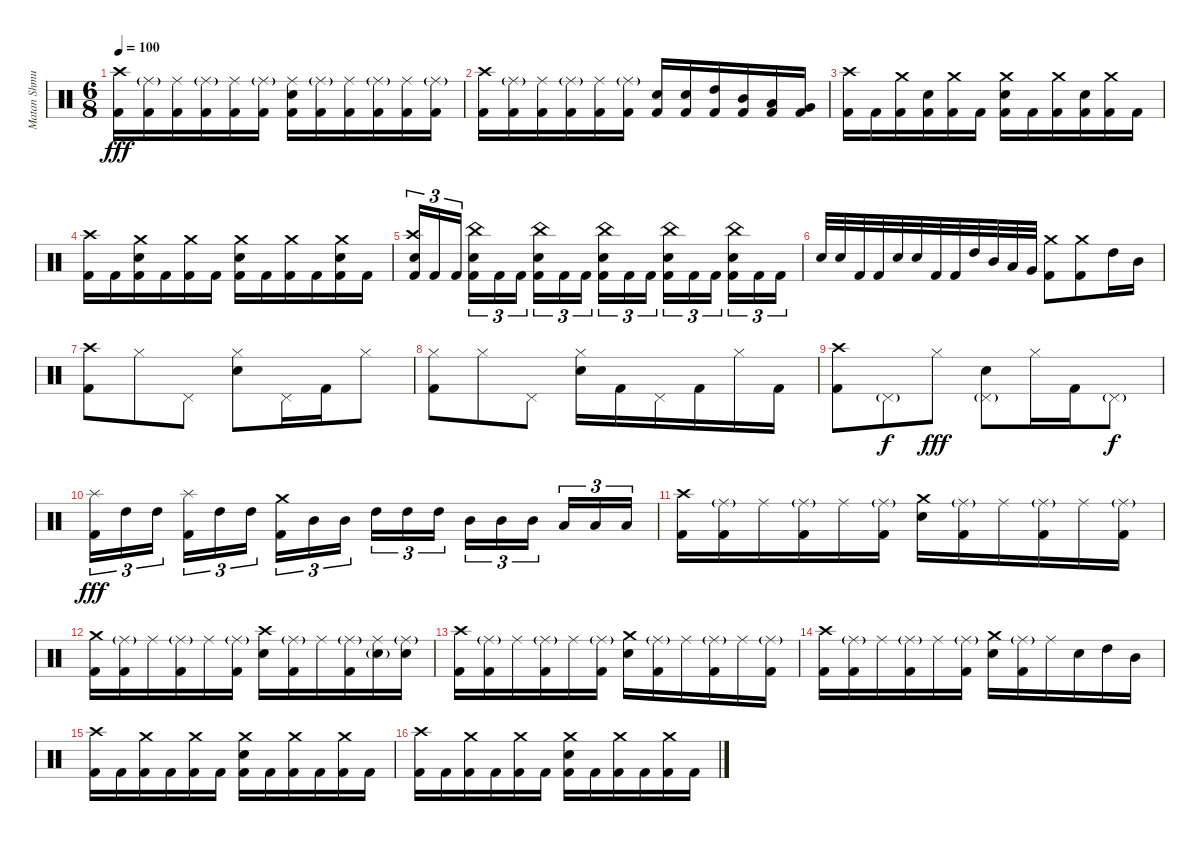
\track ("Matan Shmuely" "Matan Shmu") {instrument percussion}
\staff {score}
\articulation defaults
\ts (6 8)
\tempo 100
\clef neutral
\ks c
("Kick (hit) 2" "Crash high (hit)").16{dy fff} ("Kick (hit) 2" "Ride (middle)"{g}).16 ("Kick (hit) 2" "Ride (middle)").16 ("Kick (hit) 2" "Ride (middle)"{g}).16 ("Kick (hit) 2" "Ride (middle)").16 ("Kick (hit) 2" "Ride (middle)"{g}).16 ("Kick (hit) 2" "Electric Snare (hit)" "Ride (middle)").16 ("Kick (hit) 2" "Ride (middle)"{g}).16 ("Kick (hit) 2" "Ride (middle)").16 ("Kick (hit) 2" "Ride (middle)"{g}).16 ("Kick (hit) 2" "Ride (middle)").16 ("Kick (hit) 2" "Ride (middle)"{g}).16 |
("Kick (hit) 2" "Crash high (hit)").16 ("Kick (hit) 2" "Ride (middle)"{g}).16 ("Kick (hit) 2" "Ride (middle)").16 ("Kick (hit) 2" "Ride (middle)"{g}).16 ("Kick (hit) 2" "Ride (middle)").16 ("Kick (hit) 2" "Ride (middle)"{g}).16 ("Kick (hit) 2" "Electric Snare (hit)").16 ("Kick (hit) 2" "Electric Snare (hit)").16 ("Kick (hit) 2" "High Tom (hit)").16 ("Kick (hit) 2" "Mid Tom (hit)").16 ("Kick (hit) 2" "Low Tom (hit)").16 ("Kick (hit) 2" "Very Low Tom (hit)").16 |
("Kick (hit) 2" "Crash high (hit)").16 "Kick (hit) 2".16 ("Kick (hit) 2" "Crash medium (hit)").16 ("Kick (hit) 2" "Electric Snare (hit)").16 ("Kick (hit) 2" "Crash medium (hit)").16 "Kick (hit) 2".16 ("Kick (hit) 2" "Electric Snare (hit)" "Crash medium (hit)").16 "Kick (hit) 2".16 ("Kick (hit) 2" "Crash medium (hit)").16 ("Kick (hit) 2" "Electric Snare (hit)").16 ("Kick (hit) 2" "Crash medium (hit)").16 "Kick (hit) 2".16 |
("Kick (hit) 2" "Crash high (hit)").16 "Kick (hit) 2".16 ("Kick (hit) 2" "Electric Snare (hit)" "Crash medium (hit)").16 "Kick (hit) 2".16 ("Kick (hit) 2" "Crash medium (hit)").16 "Kick (hit) 2".16 ("Kick (hit) 2" "Electric Snare (hit)" "Crash medium (hit)").16 "Kick (hit) 2".16 ("Kick (hit) 2" "Crash medium (hit)").16 "Kick (hit) 2".16 ("Kick (hit) 2" "Electric Snare (hit)" "Crash medium (hit)").16 "Kick (hit) 2".16 |
("Kick (hit) 2" "Electric Snare (hit)" "Crash high (hit)").16{tu (3 2)} "Kick (hit) 2".16{tu (3 2)} "Kick (hit) 2".16{tu (3 2) beam splitsecondary} ("Kick (hit) 2" "Electric Snare (hit)" "China (hit)").16{tu (3 2)} "Kick (hit) 2".16{tu (3 2)} "Kick (hit) 2".16{tu (3 2) beam splitsecondary} ("Kick (hit) 2" "Electric Snare (hit)" "China (hit)").16{tu (3 2)} "Kick (hit) 2".16{tu (3 2)} "Kick (hit) 2".16{tu (3 2)} ("Kick (hit) 2" "Electric Snare (hit)" "China (hit)").16{tu (3 2)} "Kick (hit) 2".16{tu (3 2)} "Kick (hit) 2".16{tu (3 2) beam splitsecondary} ("Kick (hit) 2" "Electric Snare (hit)" "China (hit)").16{tu (3 2)} "Kick (hit) 2".16{tu (3 2)} "Kick (hit) 2".16{tu (3 2) beam splitsecondary} ("Kick (hit) 2" "Electric Snare (hit)" "China (hit)").16{tu (3 2)} "Kick (hit) 2".16{tu (3 2)} "Kick (hit) 2".16{tu (3 2)} |
"Electric Snare (hit)".32 "Electric Snare (hit)".32 "Kick (hit) 2".32 "Kick (hit) 2".32 "Electric Snare (hit)".32 "Electric Snare (hit)".32 "Kick (hit) 2".32 "Kick (hit) 2".32 "High Tom (hit)".32 "Mid Tom (hit)".32 "Low Tom (hit)".32 "Very Low Tom (hit)".32 ("Kick (hit) 2" "Crash medium (hit)").8 ("Kick (hit) 2" "Crash medium (hit)").8 "High Tom (hit)".16 "Mid Tom (hit)".16 |
("Kick (hit) 2" "Crash high (hit)").8 "Hi-Hat (closed)".8 "Pedal Hi-Hat (hit)".8 ("Electric Snare (hit)" "Hi-Hat (closed)").8 "Pedal Hi-Hat (hit)".16 "Kick (hit) 2".16 "Hi-Hat (closed)".8 |
("Kick (hit) 2" "Hi-Hat (closed)").8 "Hi-Hat (closed)".8 "Pedal Hi-Hat (hit)".8 ("Electric Snare (hit)" "Hi-Hat (closed)").16 "Kick (hit) 2".16 "Pedal Hi-Hat (hit)".16 "Kick (hit) 2".16 "Hi-Hat (closed)".16 "Kick (hit) 2".16 |
("Kick (hit) 2" "Crash high (hit)").8 "Pedal Hi-Hat (hit)"{g}.8{dy f} "Hi-Hat (closed)".8{dy fff} ("Electric Snare (hit)" "Pedal Hi-Hat (hit)"{g}).8 "Hi-Hat (closed)".16 "Kick (hit) 2".16 "Pedal Hi-Hat (hit)"{g}.8{dy f} |
("Kick (hit) 2" "Splash (hit)").16{tu (3 2) dy fff} "High Tom (hit)".16{tu (3 2)} "High Tom (hit)".16{tu (3 2) beam splitsecondary} ("Kick (hit) 2" "Splash (hit)").16{tu (3 2)} "High Tom (hit)".16{tu (3 2)} "High Tom (hit)".16{tu (3 2) beam splitsecondary} ("Kick (hit) 2" "Crash medium (hit)").16{tu (3 2)} "Mid Tom (hit)".16{tu (3 2)} "Mid Tom (hit)".16{tu (3 2)} "High Tom (hit)".16{tu (3 2)} "High Tom (hit)".16{tu (3 2)} "High Tom (hit)".16{tu (3 2) beam splitsecondary} "Mid Tom (hit)".16{tu (3 2)} "Mid Tom (hit)".16{tu (3 2)} "Mid Tom (hit)".16{tu (3 2) beam splitsecondary} "Low Tom (hit)".16{tu (3 2)} "Low Tom (hit)".16{tu (3 2)} "Low Tom (hit)".16{tu (3 2)} |
("Kick (hit) 2" "Crash high (hit)").16 ("Kick (hit) 2" "Ride (middle)"{g}).16 "Ride (middle)".16 ("Kick (hit) 2" "Ride (middle)"{g}).16 "Ride (middle)".16 ("Kick (hit) 2" "Ride (middle)"{g}).16 ("Electric Snare (hit)" "Crash medium (hit)").16 ("Kick (hit) 2" "Ride (middle)"{g}).16 "Ride (middle)".16 ("Kick (hit) 2" "Ride (middle)"{g}).16 "Ride (middle)".16 ("Kick (hit) 2" "Ride (middle)"{g}).16 |
("Kick (hit) 2" "Crash medium (hit)").16 ("Kick (hit) 2" "Ride (middle)"{g}).16 "Ride (middle)".16 ("Kick (hit) 2" "Ride (middle)"{g}).16 "Ride (middle)".16 ("Kick (hit) 2" "Ride (middle)"{g}).16 ("Electric Snare (hit)" "Crash high (hit)").16 ("Kick (hit) 2" "Ride (middle)"{g}).16 "Ride (middle)".16 ("Kick (hit) 2" "Ride (middle)"{g}).16 ("Electric Snare (hit)"{g} "Ride (middle)").16 ("Electric Snare (hit)" "Ride (middle)"{g}).16 |
("Kick (hit) 2" "Crash high (hit)").16 ("Kick (hit) 2" "Ride (middle)"{g}).16 "Ride (middle)".16 ("Kick (hit) 2" "Ride (middle)"{g}).16 "Ride (middle)".16 ("Kick (hit) 2" "Ride (middle)"{g}).16 ("Electric Snare (hit)" "Crash medium (hit)").16 ("Kick (hit) 2" "Ride (middle)"{g}).16 "Ride (middle)".16 ("Kick (hit) 2" "Ride (middle)"{g}).16 "Ride (middle)".16 ("Kick (hit) 2" "Ride (middle)"{g}).16 |
("Kick (hit) 2" "Crash high (hit)").16 ("Kick (hit) 2" "Ride (middle)"{g}).16 "Ride (middle)".16 ("Kick (hit) 2" "Ride (middle)"{g}).16 "Ride (middle)".16 ("Kick (hit) 2" "Ride (middle)"{g}).16 ("Electric Snare (hit)" "Crash medium (hit)").16 ("Kick (hit) 2" "Ride (middle)"{g}).16 "Ride (middle)".16 "Electric Snare (hit)".16 "High Tom (hit)".16 "Mid Tom (hit)".16 |
("Kick (hit) 2" "Crash high (hit)").16 "Kick (hit) 2".16 ("Kick (hit) 2" "Crash medium (hit)").16 "Kick (hit) 2".16 ("Kick (hit) 2" "Crash medium (hit)").16 "Kick (hit) 2".16 ("Kick (hit) 2" "Electric Snare (hit)" "Crash medium (hit)").16 "Kick (hit) 2".16 ("Kick (hit) 2" "Crash medium (hit)").16 "Kick (hit) 2".16 ("Kick (hit) 2" "Crash medium (hit)").16 "Kick (hit) 2".16 |
("Kick (hit) 2" "Crash high (hit)").16 "Kick (hit) 2".16 ("Kick (hit) 2" "Crash medium (hit)").16 "Kick (hit) 2".16 ("Kick (hit) 2" "Crash medium (hit)").16 "Kick (hit) 2".16 ("Kick (hit) 2" "Electric Snare (hit)" "Crash medium (hit)").16 "Kick (hit) 2".16 ("Kick (hit) 2" "Crash medium (hit)").16 "Kick (hit) 2".16 ("Kick (hit) 2" "Crash medium (hit)").16 "Kick (hit) 2".16
